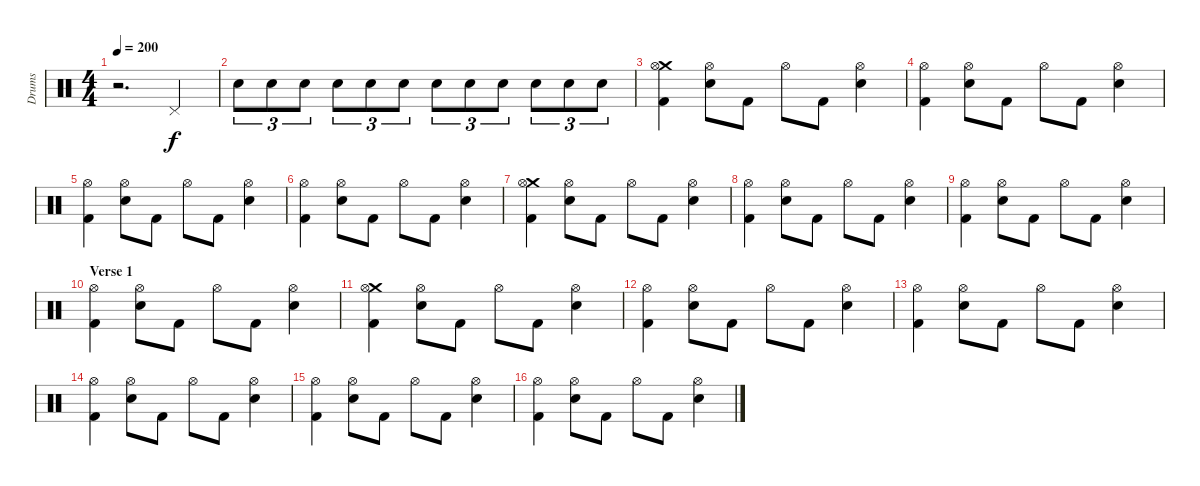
\track ("Drums" "Drums") {instrument percussion}
\staff {score}
\articulation defaults
\ts (4 4)
\tempo 200
\clef neutral
\ks c
r.2{d dy f} "Pedal Hi-Hat (hit)".4 |
"Snare (hit) 2".8{tu (3 2)} "Snare (hit) 2".8{tu (3 2)} "Snare (hit) 2".8{tu (3 2)} "Snare (hit) 2".8{tu (3 2)} "Snare (hit) 2".8{tu (3 2)} "Snare (hit) 2".8{tu (3 2)} "Snare (hit) 2".8{tu (3 2)} "Snare (hit) 2".8{tu (3 2)} "Snare (hit) 2".8{tu (3 2)} "Snare (hit) 2".8{tu (3 2)} "Snare (hit) 2".8{tu (3 2)} "Snare (hit) 2".8{tu (3 2)} |
("Crash medium (hit)" "Hi-Hat (open)" "Kick (hit) 2").4 ("Hi-Hat (open)" "Snare (hit) 2").8 "Kick (hit) 2".8 "Hi-Hat (open)".8 "Kick (hit) 2".8 ("Hi-Hat (open)" "Snare (hit) 2").4 |
("Hi-Hat (open)" "Kick (hit) 2").4 ("Hi-Hat (open)" "Snare (hit) 2").8 "Kick (hit) 2".8 "Hi-Hat (open)".8 "Kick (hit) 2".8 ("Hi-Hat (open)" "Snare (hit) 2").4 |
("Hi-Hat (open)" "Kick (hit) 2").4 ("Hi-Hat (open)" "Snare (hit) 2").8 "Kick (hit) 2".8 "Hi-Hat (open)".8 "Kick (hit) 2".8 ("Hi-Hat (open)" "Snare (hit) 2").4 |
("Hi-Hat (open)" "Kick (hit) 2").4 ("Hi-Hat (open)" "Snare (hit) 2").8 "Kick (hit) 2".8 "Hi-Hat (open)".8 "Kick (hit) 2".8 ("Hi-Hat (open)" "Snare (hit) 2").4 |
("Crash medium (hit)" "Hi-Hat (open)" "Kick (hit) 2").4 ("Hi-Hat (open)" "Snare (hit) 2").8 "Kick (hit) 2".8 "Hi-Hat (open)".8 "Kick (hit) 2".8 ("Hi-Hat (open)" "Snare (hit) 2").4 |
("Hi-Hat (open)" "Kick (hit) 2").4 ("Hi-Hat (open)" "Snare (hit) 2").8 "Kick (hit) 2".8 "Hi-Hat (open)".8 "Kick (hit) 2".8 ("Hi-Hat (open)" "Snare (hit) 2").4 |
("Hi-Hat (open)" "Kick (hit) 2").4 ("Hi-Hat (open)" "Snare (hit) 2").8 "Kick (hit) 2".8 "Hi-Hat (open)".8 "Kick (hit) 2".8 ("Hi-Hat (open)" "Snare (hit) 2").4 |
\section ("" "Verse 1")
("Hi-Hat (open)" "Kick (hit) 2").4 ("Hi-Hat (open)" "Snare (hit) 2").8 "Kick (hit) 2".8 "Hi-Hat (open)".8 "Kick (hit) 2".8 ("Hi-Hat (open)" "Snare (hit) 2").4 |
("Crash medium (hit)" "Hi-Hat (open)" "Kick (hit) 2").4 ("Hi-Hat (open)" "Snare (hit) 2").8 "Kick (hit) 2".8 "Hi-Hat (open)".8 "Kick (hit) 2".8 ("Hi-Hat (open)" "Snare (hit) 2").4 |
("Hi-Hat (open)" "Kick (hit) 2").4 ("Hi-Hat (open)" "Snare (hit) 2").8 "Kick (hit) 2".8 "Hi-Hat (open)".8 "Kick (hit) 2".8 ("Hi-Hat (open)" "Snare (hit) 2").4 |
("Hi-Hat (open)" "Kick (hit) 2").4 ("Hi-Hat (open)" "Snare (hit) 2").8 "Kick (hit) 2".8 "Hi-Hat (open)".8 "Kick (hit) 2".8 ("Hi-Hat (open)" "Snare (hit) 2").4 |
("Hi-Hat (open)" "Kick (hit) 2").4 ("Hi-Hat (open)" "Snare (hit) 2").8 "Kick (hit) 2".8 "Hi-Hat (open)".8 "Kick (hit) 2".8 ("Hi-Hat (open)" "Snare (hit) 2").4 |
("Hi-Hat (open)" "Kick (hit) 2").4 ("Hi-Hat (open)" "Snare (hit) 2").8 "Kick (hit) 2".8 "Hi-Hat (open)".8 "Kick (hit) 2".8 ("Hi-Hat (open)" "Snare (hit) 2").4 |
("Hi-Hat (open)" "Kick (hit) 2").4 ("Hi-Hat (open)" "Snare (hit) 2").8 "Kick (hit) 2".8 "Hi-Hat (open)".8 "Kick (hit) 2".8 ("Hi-Hat (open)" "Snare (hit) 2").4
